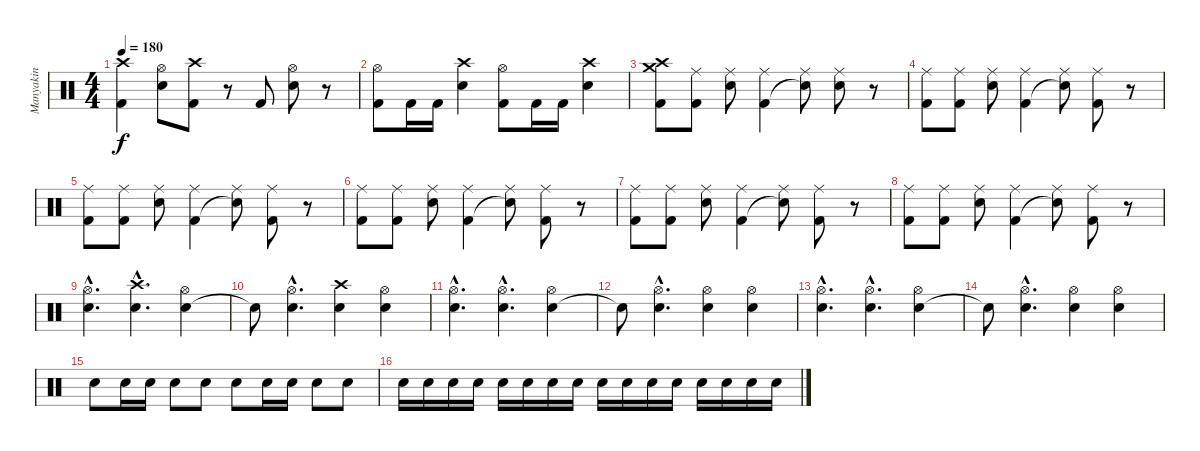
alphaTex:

\track ("Manyakin" "Manyakin") {instrument percussion}
\staff {score}
\articulation defaults
\ts (4 4)
\tempo 180
\clef neutral
\ks c
("Kick (hit) 2" "Crash high (hit)").4{dy f} ("Snare (hit) 2" "Hi-Hat (open)").8 ("Kick (hit) 2" "Crash high (hit)").8 r.8 "Kick (hit) 2".8 ("Snare (hit) 2" "Hi-Hat (open)").8 r.8 |
("Kick (hit) 2" "Hi-Hat (open)").8 "Kick (hit) 2".16 "Kick (hit) 2".16 ("Snare (hit) 2" "Crash high (hit)").4 ("Kick (hit) 2" "Hi-Hat (open)").8 "Kick (hit) 2".16 "Kick (hit) 2".16 ("Snare (hit) 2" "Crash high (hit)").4 |
("Kick (hit) 2" "Crash high (hit)" "Crash medium (hit)").8 ("Kick (hit) 2" "Ride (middle)").8 ("Snare (hit) 2" "Ride (middle)").8 ("Kick (hit) 2" "Ride (middle)").4 ("Snare (hit)"{t} "Ride (middle)").8 ("Snare (hit) 2" "Ride (middle)").8 r.8 |
("Kick (hit) 2" "Ride (middle)").8 ("Kick (hit) 2" "Ride (middle)").8 ("Snare (hit) 2" "Ride (middle)").8 ("Kick (hit) 2" "Ride (middle)").4 ("Snare (hit)"{t} "Ride (middle)").8 ("Kick (hit) 2" "Ride (middle)").8 r.8 |
("Kick (hit) 2" "Ride (middle)").8 ("Kick (hit) 2" "Ride (middle)").8 ("Snare (hit) 2" "Ride (middle)").8 ("Kick (hit) 2" "Ride (middle)").4 ("Snare (hit)"{t} "Ride (middle)").8 ("Kick (hit) 2" "Ride (middle)").8 r.8 |
("Kick (hit) 2" "Ride (middle)").8 ("Kick (hit) 2" "Ride (middle)").8 ("Snare (hit) 2" "Ride (middle)").8 ("Kick (hit) 2" "Ride (middle)").4 ("Snare (hit)"{t} "Ride (middle)").8 ("Kick (hit) 2" "Ride (middle)").8 r.8 |
("Kick (hit) 2" "Ride (middle)").8 ("Kick (hit) 2" "Ride (middle)").8 ("Snare (hit) 2" "Ride (middle)").8 ("Kick (hit) 2" "Ride (middle)").4 ("Snare (hit)"{t} "Ride (middle)").8 ("Kick (hit) 2" "Ride (middle)").8 r.8 |
("Kick (hit) 2" "Ride (middle)").8 ("Kick (hit) 2" "Ride (middle)").8 ("Snare (hit) 2" "Ride (middle)").8 ("Kick (hit) 2" "Ride (middle)").4 ("Snare (hit)"{t} "Ride (middle)").8 ("Kick (hit) 2" "Ride (middle)").8 r.8 |
("Snare (hit) 2"{hac} "Hi-Hat (open)"{hac}).4{d} ("Snare (hit) 2"{hac} "Crash high (hit)"{hac}).4{d} ("Snare (hit) 2" "Hi-Hat (open)").4 |
"Snare (hit)"{t}.8 ("Snare (hit) 2"{hac} "Hi-Hat (open)"{hac}).4{d} ("Snare (hit) 2" "Crash high (hit)").4 ("Snare (hit) 2" "Hi-Hat (open)").4 |
("Snare (hit) 2"{hac} "Hi-Hat (open)"{hac}).4{d} ("Snare (hit) 2"{hac} "Hi-Hat (open)"{hac}).4{d} ("Snare (hit) 2" "Hi-Hat (open)").4 |
"Snare (hit)"{t}.8 ("Snare (hit) 2"{hac} "Hi-Hat (open)"{hac}).4{d} ("Snare (hit) 2" "Hi-Hat (open)").4 ("Snare (hit) 2" "Hi-Hat (open)").4 |
("Snare (hit) 2"{hac} "Hi-Hat (open)"{hac}).4{d} ("Snare (hit) 2"{hac} "Hi-Hat (open)"{hac}).4{d} ("Snare (hit) 2" "Hi-Hat (open)").4 |
"Snare (hit)"{t}.8 ("Snare (hit) 2"{hac} "Hi-Hat (open)"{hac}).4{d} ("Snare (hit) 2" "Hi-Hat (open)").4 ("Snare (hit) 2" "Hi-Hat (open)").4 |
"Snare (hit) 2".8 "Snare (hit) 2".16 "Snare (hit) 2".16 "Snare (hit) 2".8 "Snare (hit) 2".8 "Snare (hit) 2".8 "Snare (hit) 2".16 "Snare (hit) 2".16 "Snare (hit) 2".8 "Snare (hit) 2".8 |
"Snare (hit) 2".16 "Snare (hit) 2".16 "Snare (hit) 2".16 "Snare (hit) 2".16 "Snare (hit) 2".16 "Snare (hit) 2".16 "Snare (hit) 2".16 "Snare (hit) 2".16 "Snare (hit) 2".16 "Snare (hit) 2".16 "Snare (hit) 2".16 "Snare (hit) 2".16 "Snare (hit) 2".16 "Snare (hit) 2".16 "Snare (hit) 2".16 "Snare (hit) 2".16
